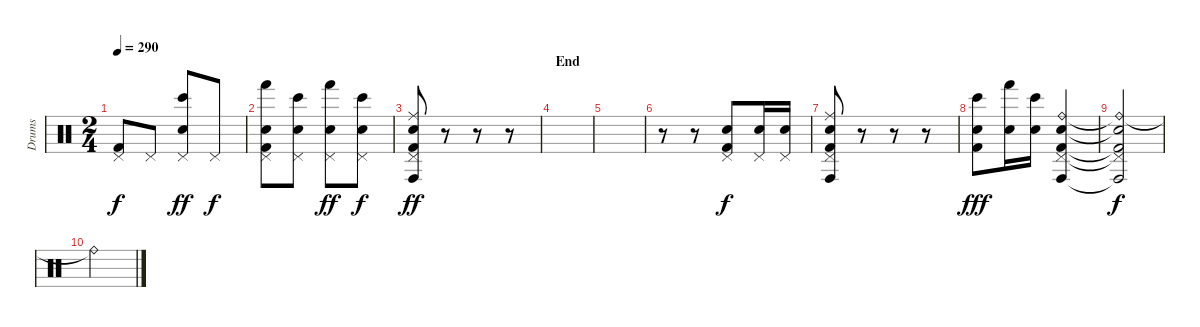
\track ("Drums" "Drums") {instrument percussion}
\staff {score}
\articulation defaults
\ts (2 4)
\tempo 290
\clef neutral
\ks c
("Pedal Hi-Hat (hit)" "Kick (hit) 2").8{dy f} "Pedal Hi-Hat (hit)".8 ("Pedal Hi-Hat (hit)" "Bongo High (hit)" "Electric Snare (hit)").8{dy ff} "Pedal Hi-Hat (hit)".8{dy f} |
("Pedal Hi-Hat (hit)" "Hand (hit)" "Electric Snare (hit)" "Kick (hit) 2").8 ("Pedal Hi-Hat (hit)" "Bongo High (hit)" "Electric Snare (hit)").8 ("Pedal Hi-Hat (hit)" "Hand (hit)" "Electric Snare (hit)").8{dy ff} ("Pedal Hi-Hat (hit)" "Bongo High (hit)" "Electric Snare (hit)").8{dy f} |
("Pedal Hi-Hat (hit)" "Ride (middle)" "Conga high (hit)" "Electric Snare (hit)" "Kick (hit) 2").8{dy ff} r.8 r.8 r.8 |
\section ("" "End")
|
|
r.8 r.8 ("Pedal Hi-Hat (hit)" "Electric Snare (hit)" "Kick (hit) 2").8{dy f} ("Pedal Hi-Hat (hit)" "Electric Snare (hit)").16 ("Pedal Hi-Hat (hit)" "Electric Snare (hit)").16 |
("Pedal Hi-Hat (hit)" "Ride (middle)" "Conga high (hit)" "Electric Snare (hit)" "Kick (hit) 2").8 r.8 r.8 r.8 |
("Bongo High (hit)" "Electric Snare (hit)" "Kick (hit) 2").8{dy fff} ("Hand (hit)" "Electric Snare (hit)").16 ("Bongo High (hit)" "Electric Snare (hit)").16 ("Ride (bell)" "Pedal Hi-Hat (hit)" "Conga high (hit)" "Electric Snare (hit)" "Kick (hit) 2").4 |
("Ride (bell)"{t} "Pedal Hi-Hat (hit)"{t} "Conga high (hit)"{t} "Electric Snare (hit)"{t} "Kick (hit) 2"{t}).2{dy f} |
"Ride (bell)"{t}.2
